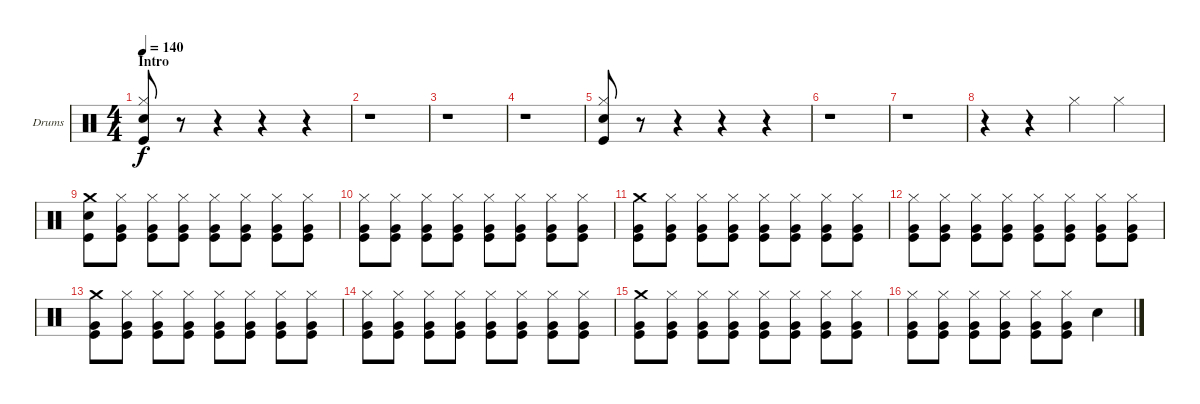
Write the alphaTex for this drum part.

\bracketExtendMode groupsimilarinstruments
\firstSystemTrackNameOrientation horizontal
\otherSystemsTrackNameOrientation horizontal
\track ("Drumkit" "Drums") {instrument percussion}
\staff {score}
\articulation defaults
\ts (4 4)
\section ("" "Intro")
\tempo 140
\clef neutral
\ks c
("Snare (hit) 2" "Hi-Hat (closed)" "Kick (hit)").8{dy f} r.8 r.4 r.4 r.4 |
r.1 |
r.1 |
r.1 |
("Snare (hit) 2" "Hi-Hat (closed)" "Kick (hit)").8 r.8 r.4 r.4 r.4 |
r.1 |
r.1 |
r.4 r.4 "Hi-Hat (closed)".4 "Hi-Hat (closed)".4 |
("Snare (hit) 2" "Crash medium (hit)" "Kick (hit)").8 ("Hi-Hat (closed)" "Kick (hit)" "Very Low Tom (hit)").8 ("Hi-Hat (closed)" "Kick (hit)" "Very Low Tom (hit)").8 ("Hi-Hat (closed)" "Kick (hit)" "Very Low Tom (hit)").8 ("Hi-Hat (closed)" "Kick (hit)" "Very Low Tom (hit)").8 ("Hi-Hat (closed)" "Kick (hit)" "Very Low Tom (hit)").8 ("Hi-Hat (closed)" "Kick (hit)" "Very Low Tom (hit)").8 ("Hi-Hat (closed)" "Kick (hit)" "Very Low Tom (hit)").8 |
("Hi-Hat (closed)" "Kick (hit)" "Very Low Tom (hit)").8 ("Hi-Hat (closed)" "Kick (hit)" "Very Low Tom (hit)").8 ("Hi-Hat (closed)" "Kick (hit)" "Very Low Tom (hit)").8 ("Hi-Hat (closed)" "Kick (hit)" "Very Low Tom (hit)").8 ("Hi-Hat (closed)" "Kick (hit)" "Very Low Tom (hit)").8 ("Hi-Hat (closed)" "Kick (hit)" "Very Low Tom (hit)").8 ("Hi-Hat (closed)" "Kick (hit)" "Very Low Tom (hit)").8 ("Hi-Hat (closed)" "Kick (hit)" "Very Low Tom (hit)").8 |
("Crash medium (hit)" "Kick (hit)" "Very Low Tom (hit)").8 ("Hi-Hat (closed)" "Kick (hit)" "Very Low Tom (hit)").8 ("Hi-Hat (closed)" "Kick (hit)" "Very Low Tom (hit)").8 ("Hi-Hat (closed)" "Kick (hit)" "Very Low Tom (hit)").8 ("Hi-Hat (closed)" "Kick (hit)" "Very Low Tom (hit)").8 ("Hi-Hat (closed)" "Kick (hit)" "Very Low Tom (hit)").8 ("Hi-Hat (closed)" "Kick (hit)" "Very Low Tom (hit)").8 ("Hi-Hat (closed)" "Kick (hit)" "Very Low Tom (hit)").8 |
("Hi-Hat (closed)" "Kick (hit)" "Very Low Tom (hit)").8 ("Hi-Hat (closed)" "Kick (hit)" "Very Low Tom (hit)").8 ("Hi-Hat (closed)" "Kick (hit)" "Very Low Tom (hit)").8 ("Hi-Hat (closed)" "Kick (hit)" "Very Low Tom (hit)").8 ("Hi-Hat (closed)" "Kick (hit)" "Very Low Tom (hit)").8 ("Hi-Hat (closed)" "Kick (hit)" "Very Low Tom (hit)").8 ("Hi-Hat (closed)" "Kick (hit)" "Very Low Tom (hit)").8 ("Hi-Hat (closed)" "Kick (hit)" "Very Low Tom (hit)").8 |
("Crash medium (hit)" "Kick (hit)" "Very Low Tom (hit)").8 ("Hi-Hat (closed)" "Kick (hit)" "Very Low Tom (hit)").8 ("Hi-Hat (closed)" "Kick (hit)" "Very Low Tom (hit)").8 ("Hi-Hat (closed)" "Kick (hit)" "Very Low Tom (hit)").8 ("Hi-Hat (closed)" "Kick (hit)" "Very Low Tom (hit)").8 ("Hi-Hat (closed)" "Kick (hit)" "Very Low Tom (hit)").8 ("Hi-Hat (closed)" "Kick (hit)" "Very Low Tom (hit)").8 ("Hi-Hat (closed)" "Kick (hit)" "Very Low Tom (hit)").8 |
("Hi-Hat (closed)" "Kick (hit)" "Very Low Tom (hit)").8 ("Hi-Hat (closed)" "Kick (hit)" "Very Low Tom (hit)").8 ("Hi-Hat (closed)" "Kick (hit)" "Very Low Tom (hit)").8 ("Hi-Hat (closed)" "Kick (hit)" "Very Low Tom (hit)").8 ("Hi-Hat (closed)" "Kick (hit)" "Very Low Tom (hit)").8 ("Hi-Hat (closed)" "Kick (hit)" "Very Low Tom (hit)").8 ("Hi-Hat (closed)" "Kick (hit)" "Very Low Tom (hit)").8 ("Hi-Hat (closed)" "Kick (hit)" "Very Low Tom (hit)").8 |
("Crash medium (hit)" "Kick (hit)" "Very Low Tom (hit)").8 ("Hi-Hat (closed)" "Kick (hit)" "Very Low Tom (hit)").8 ("Hi-Hat (closed)" "Kick (hit)" "Very Low Tom (hit)").8 ("Hi-Hat (closed)" "Kick (hit)" "Very Low Tom (hit)").8 ("Hi-Hat (closed)" "Kick (hit)" "Very Low Tom (hit)").8 ("Hi-Hat (closed)" "Kick (hit)" "Very Low Tom (hit)").8 ("Hi-Hat (closed)" "Kick (hit)" "Very Low Tom (hit)").8 ("Hi-Hat (closed)" "Kick (hit)" "Very Low Tom (hit)").8 |
("Hi-Hat (closed)" "Kick (hit)" "Very Low Tom (hit)").8 ("Hi-Hat (closed)" "Kick (hit)" "Very Low Tom (hit)").8 ("Hi-Hat (closed)" "Kick (hit)" "Very Low Tom (hit)").8 ("Hi-Hat (closed)" "Kick (hit)" "Very Low Tom (hit)").8 ("Hi-Hat (closed)" "Kick (hit)" "Very Low Tom (hit)").8 ("Hi-Hat (closed)" "Kick (hit)" "Very Low Tom (hit)").8 "Snare (hit) 2".4
